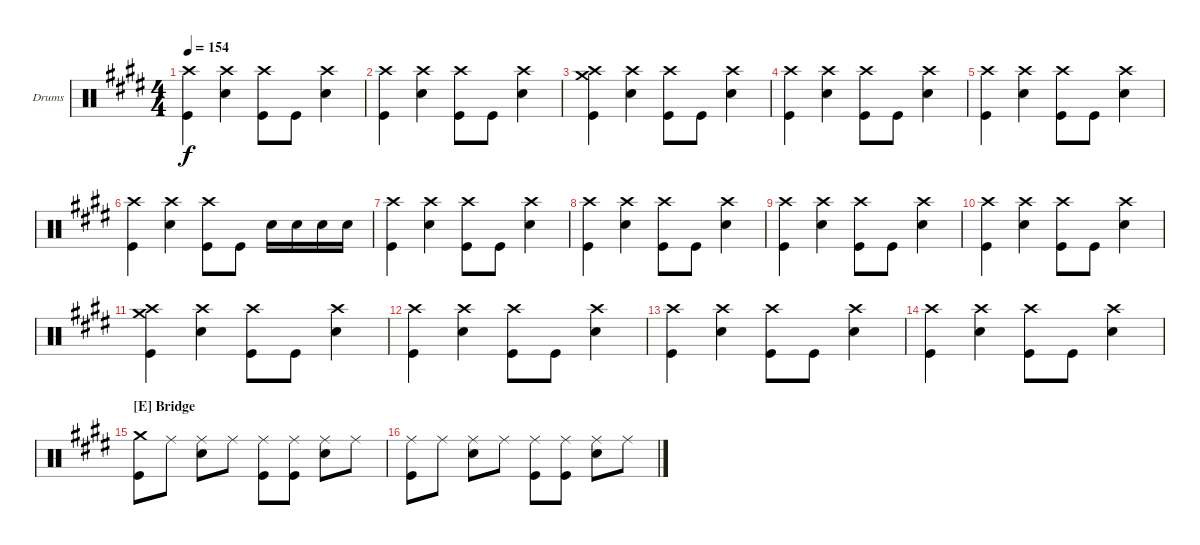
\defaultSystemsLayout 4
\bracketExtendMode groupsimilarinstruments
\firstSystemTrackNameOrientation horizontal
\otherSystemsTrackNameOrientation horizontal
\track ("Jon Larsen" "Drums") {instrument percussion}
\staff {score}
\articulation defaults
\ts (4 4)
\tempo 154
\clef neutral
\scale
0.333333
\ks e
("Crash high (hit)" "Kick (hit)").4{dy f} ("Crash high (hit)" "Snare (hit) 2").4 ("Crash high (hit)" "Kick (hit)").8 "Kick (hit)".8 ("Crash high (hit)" "Snare (hit) 2").4 |
\scale
0.333333 ("Crash high (hit)" "Kick (hit)").4 ("Crash high (hit)" "Snare (hit) 2").4 ("Crash high (hit)" "Kick (hit)").8 "Kick (hit)".8 ("Crash high (hit)" "Snare (hit) 2").4 |
\scale
0.333333 ("Crash medium (hit)" "Crash high (hit)" "Kick (hit)").4 ("Crash high (hit)" "Snare (hit) 2").4 ("Crash high (hit)" "Kick (hit)").8 "Kick (hit)".8 ("Crash high (hit)" "Snare (hit) 2").4 |
\scale
0.333333 ("Crash high (hit)" "Kick (hit)").4 ("Crash high (hit)" "Snare (hit) 2").4 ("Crash high (hit)" "Kick (hit)").8 "Kick (hit)".8 ("Crash high (hit)" "Snare (hit) 2").4 |
\scale
0.333333 ("Crash high (hit)" "Kick (hit)").4 ("Crash high (hit)" "Snare (hit) 2").4 ("Crash high (hit)" "Kick (hit)").8 "Kick (hit)".8 ("Crash high (hit)" "Snare (hit) 2").4 |
\scale
0.333333 ("Crash high (hit)" "Kick (hit)").4 ("Crash high (hit)" "Snare (hit) 2").4 ("Crash high (hit)" "Kick (hit)").8 "Kick (hit)".8 "Snare (hit) 2".16 "Snare (hit) 2".16 "Snare (hit) 2".16 "Snare (hit) 2".16 |
\scale
0.333333 ("Crash high (hit)" "Kick (hit)").4 ("Crash high (hit)" "Snare (hit) 2").4 ("Crash high (hit)" "Kick (hit)").8 "Kick (hit)".8 ("Crash high (hit)" "Snare (hit) 2").4 |
\scale
0.333333 ("Crash high (hit)" "Kick (hit)").4 ("Crash high (hit)" "Snare (hit) 2").4 ("Crash high (hit)" "Kick (hit)").8 "Kick (hit)".8 ("Crash high (hit)" "Snare (hit) 2").4 |
\scale
0.333333 ("Crash high (hit)" "Kick (hit)").4 ("Crash high (hit)" "Snare (hit) 2").4 ("Crash high (hit)" "Kick (hit)").8 "Kick (hit)".8 ("Crash high (hit)" "Snare (hit) 2").4 |
\scale
0.333333 ("Crash high (hit)" "Kick (hit)").4 ("Crash high (hit)" "Snare (hit) 2").4 ("Crash high (hit)" "Kick (hit)").8 "Kick (hit)".8 ("Crash high (hit)" "Snare (hit) 2").4 |
\scale
0.333333 ("Crash medium (hit)" "Crash high (hit)" "Kick (hit)").4 ("Crash high (hit)" "Snare (hit) 2").4 ("Crash high (hit)" "Kick (hit)").8 "Kick (hit)".8 ("Crash high (hit)" "Snare (hit) 2").4 |
\scale
0.333333 ("Crash high (hit)" "Kick (hit)").4 ("Crash high (hit)" "Snare (hit) 2").4 ("Crash high (hit)" "Kick (hit)").8 "Kick (hit)".8 ("Crash high (hit)" "Snare (hit) 2").4 |
\scale
0.333333 ("Crash high (hit)" "Kick (hit)").4 ("Crash high (hit)" "Snare (hit) 2").4 ("Crash high (hit)" "Kick (hit)").8 "Kick (hit)".8 ("Crash high (hit)" "Snare (hit) 2").4 |
\scale
0.333333 ("Crash high (hit)" "Kick (hit)").4 ("Crash high (hit)" "Snare (hit) 2").4 ("Crash high (hit)" "Kick (hit)").8 "Kick (hit)".8 ("Crash high (hit)" "Snare (hit) 2").4 |
\section ("E" "Bridge")
\scale
0.333333 ("Crash medium (hit)" "Kick (hit)").8 "Ride (middle)".8 ("Ride (middle)" "Snare (hit) 2").8 "Ride (middle)".8 ("Ride (middle)" "Kick (hit)").8 ("Ride (middle)" "Kick (hit)").8 ("Ride (middle)" "Snare (hit) 2").8 "Ride (middle)".8 |
\scale
0.333333 ("Ride (middle)" "Kick (hit)").8 "Ride (middle)".8 ("Ride (middle)" "Snare (hit) 2").8 "Ride (middle)".8 ("Ride (middle)" "Kick (hit)").8 ("Ride (middle)" "Kick (hit)").8 ("Ride (middle)" "Snare (hit) 2").8 "Ride (middle)".8
